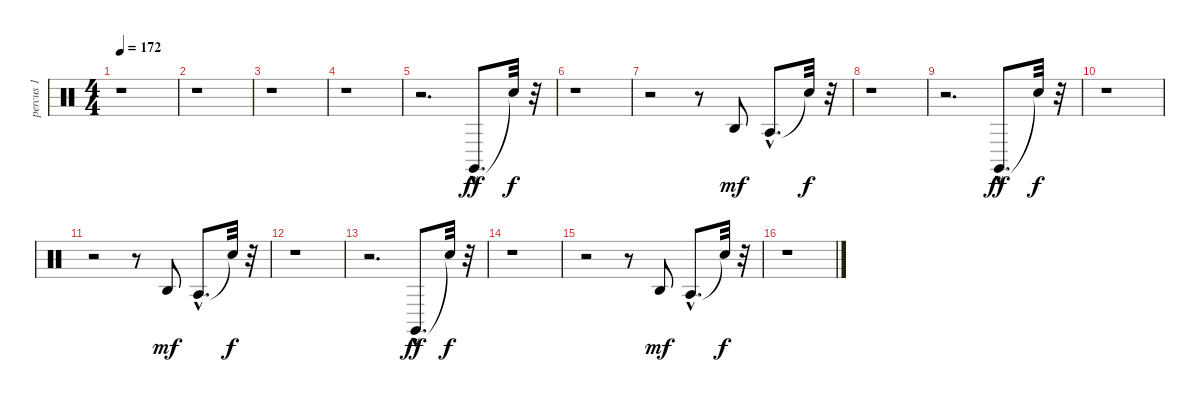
\track ("percus 1" "percus 1") {instrument percussion}
\staff {score}
\articulation defaults
\ts (4 4)
\tempo 172
\clef neutral
\ks c
r.1{dy ff} |
r.1 |
r.1 |
r.1 |
r.2{d} "Claves (hit)"{hac}.8{d} "Snare (hit)"{t}.32{dy f} r.32 |
r.1 |
r.2 r.8 "Agogo high (hit)".8{dy mf} "Agogo tow (hit)"{hac}.8{d} "Snare (hit)"{t}.32{dy f} r.32 |
r.1 |
r.2{d} "Claves (hit)"{hac}.8{d dy ff} "Snare (hit)"{t}.32{dy f} r.32 |
r.1 |
r.2 r.8 "Agogo high (hit)".8{dy mf} "Agogo tow (hit)"{hac}.8{d} "Snare (hit)"{t}.32{dy f} r.32 |
r.1 |
r.2{d} "Claves (hit)"{hac}.8{d dy ff} "Snare (hit)"{t}.32{dy f} r.32 |
r.1 |
r.2 r.8 "Agogo high (hit)".8{dy mf} "Agogo tow (hit)"{hac}.8{d} "Snare (hit)"{t}.32{dy f} r.32 |
r.1
